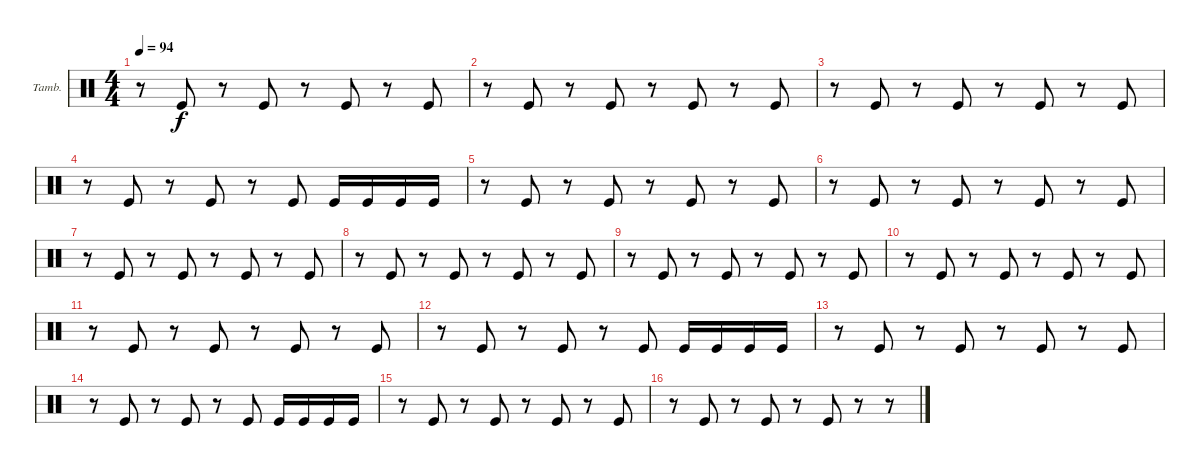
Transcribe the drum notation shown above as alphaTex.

\defaultSystemsLayout 4
\bracketExtendMode groupsimilarinstruments
\firstSystemTrackNameOrientation horizontal
\otherSystemsTrackNameOrientation horizontal
\track ("Tambourine" "Tamb.") {instrument percussion}
\staff {score}
\articulation defaults
\ts (4 4)
\tempo 94
\clef neutral
\scale
0.472222
\ks c
r.8{dy f} "Kick (hit)".8 r.8 "Kick (hit)".8 r.8 "Kick (hit)".8 r.8 "Kick (hit)".8 |
\scale
0.263889 r.8 "Kick (hit)".8 r.8 "Kick (hit)".8 r.8 "Kick (hit)".8 r.8 "Kick (hit)".8 |
\scale
0.263889 r.8 "Kick (hit)".8 r.8 "Kick (hit)".8 r.8 "Kick (hit)".8 r.8 "Kick (hit)".8 |
\scale
0.333333 r.8 "Kick (hit)".8 r.8 "Kick (hit)".8 r.8 "Kick (hit)".8 "Kick (hit)".16 "Kick (hit)".16 "Kick (hit)".16 "Kick (hit)".16 |
\scale
0.333333 r.8 "Kick (hit)".8 r.8 "Kick (hit)".8 r.8 "Kick (hit)".8 r.8 "Kick (hit)".8 |
\scale
0.333333 r.8 "Kick (hit)".8 r.8 "Kick (hit)".8 r.8 "Kick (hit)".8 r.8 "Kick (hit)".8 |
\scale
0.333333 r.8 "Kick (hit)".8 r.8 "Kick (hit)".8 r.8 "Kick (hit)".8 r.8 "Kick (hit)".8 |
\scale
0.333333 r.8 "Kick (hit)".8 r.8 "Kick (hit)".8 r.8 "Kick (hit)".8 r.8 "Kick (hit)".8 |
\scale
0.333333 r.8 "Kick (hit)".8 r.8 "Kick (hit)".8 r.8 "Kick (hit)".8 r.8 "Kick (hit)".8 |
\scale
0.333333 r.8 "Kick (hit)".8 r.8 "Kick (hit)".8 r.8 "Kick (hit)".8 r.8 "Kick (hit)".8 |
\scale
0.333333 r.8 "Kick (hit)".8 r.8 "Kick (hit)".8 r.8 "Kick (hit)".8 r.8 "Kick (hit)".8 |
\scale
0.333333 r.8 "Kick (hit)".8 r.8 "Kick (hit)".8 r.8 "Kick (hit)".8 "Kick (hit)".16 "Kick (hit)".16 "Kick (hit)".16 "Kick (hit)".16 |
\scale
0.333333 r.8 "Kick (hit)".8 r.8 "Kick (hit)".8 r.8 "Kick (hit)".8 r.8 "Kick (hit)".8 |
\scale
0.333333 r.8 "Kick (hit)".8 r.8 "Kick (hit)".8 r.8 "Kick (hit)".8 "Kick (hit)".16 "Kick (hit)".16 "Kick (hit)".16 "Kick (hit)".16 |
\scale
0.333333 r.8 "Kick (hit)".8 r.8 "Kick (hit)".8 r.8 "Kick (hit)".8 r.8 "Kick (hit)".8 |
\scale
0.333333 r.8 "Kick (hit)".8 r.8 "Kick (hit)".8 r.8 "Kick (hit)".8 r.8 r.8
